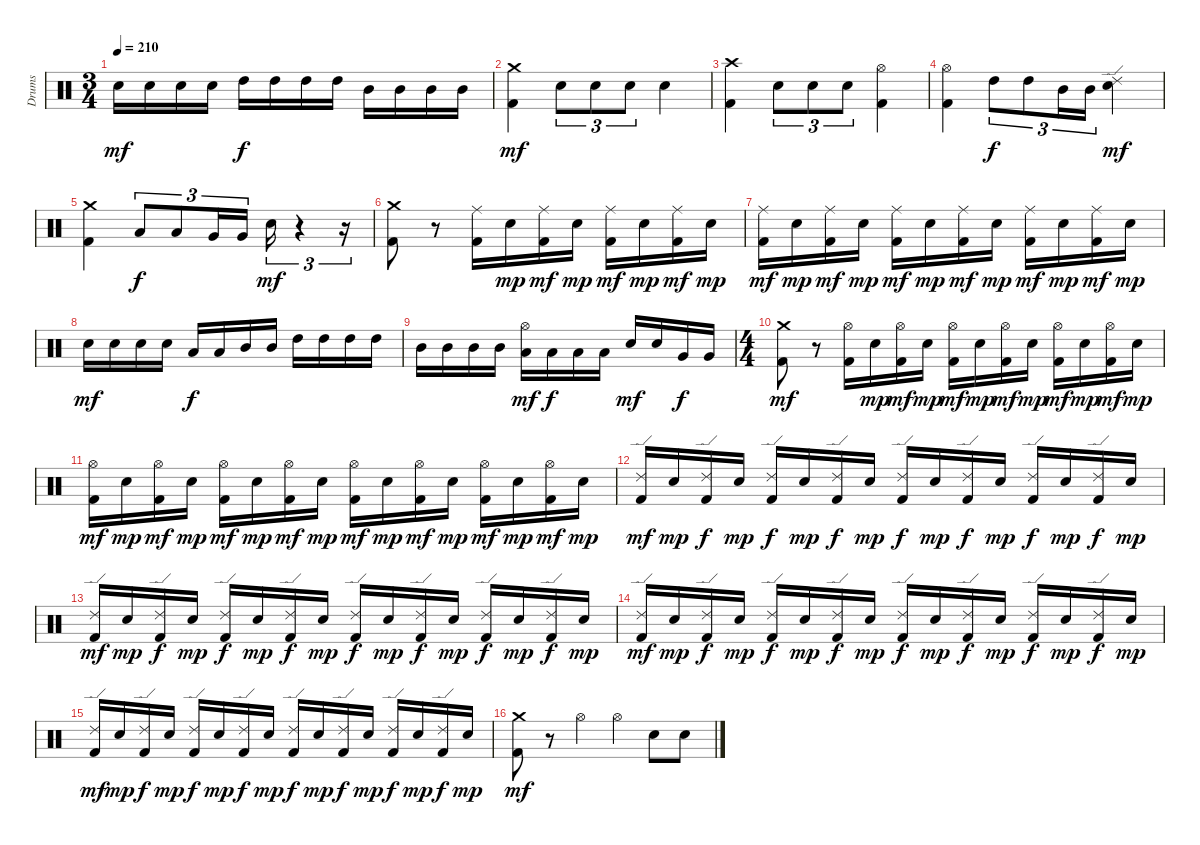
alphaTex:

\track ("Drums" "Drums") {instrument percussion}
\staff {score}
\articulation defaults
\ts (3 4)
\tempo 210
\clef neutral
\ks c "Electric Snare (hit)".16{dy mf} "Electric Snare (hit)".16 "Electric Snare (hit)".16 "Electric Snare (hit)".16 "High Tom (hit)".16{dy f} "High Tom (hit)".16 "High Tom (hit)".16 "High Tom (hit)".16 "Mid Tom (hit)".16 "Mid Tom (hit)".16 "Mid Tom (hit)".16 "Mid Tom (hit)".16
|
("Crash medium (hit)" "Kick (hit) 2").4{dy mf} "Electric Snare (hit)".8{tu (3 2)} "Electric Snare (hit)".8{tu (3 2)} "Electric Snare (hit)".8{tu (3 2)} "Electric Snare (hit)".4 |
("Crash high (hit)" "Kick (hit) 2").4 "Electric Snare (hit)".8{tu (3 2)} "Electric Snare (hit)".8{tu (3 2)} "Electric Snare (hit)".8{tu (3 2)} ("Hi-Hat (open)" "Kick (hit) 2").4 |
("Hi-Hat (open)" "Kick (hit) 2").4 "High Tom (hit)".8{tu (3 2) dy f} "High Tom (hit)".8{tu (3 2)} "Mid Tom (hit)".16{tu (3 2)} "Mid Tom (hit)".16{tu (3 2)} ("Ride (edge) 2" "Electric Snare (hit)").4{dy mf} |
("Crash medium (hit)" "Kick (hit) 2").4 "Low Tom (hit)".8{tu (3 2) dy f} "Low Tom (hit)".8{tu (3 2)} "Very Low Tom (hit)".16{tu (3 2)} "Very Low Tom (hit)".16{tu (3 2)} "Electric Snare (hit)".16{tu (3 2) dy mf} r.4{tu (3 2)} r.16{tu (3 2)} |
("Crash medium (hit)" "Kick (hit) 2").8 r.8 ("Ride (middle)" "Kick (hit) 2").16 "Electric Snare (hit)".16{dy mp} ("Ride (middle)" "Kick (hit) 2").16{dy mf} "Electric Snare (hit)".16{dy mp} ("Ride (middle)" "Kick (hit) 2").16{dy mf} "Electric Snare (hit)".16{dy mp} ("Ride (middle)" "Kick (hit) 2").16{dy mf} "Electric Snare (hit)".16{dy mp} |
("Ride (middle)" "Kick (hit) 2").16{dy mf} "Electric Snare (hit)".16{dy mp} ("Ride (middle)" "Kick (hit) 2").16{dy mf} "Electric Snare (hit)".16{dy mp} ("Ride (middle)" "Kick (hit) 2").16{dy mf} "Electric Snare (hit)".16{dy mp} ("Ride (middle)" "Kick (hit) 2").16{dy mf} "Electric Snare (hit)".16{dy mp} ("Ride (middle)" "Kick (hit) 2").16{dy mf} "Electric Snare (hit)".16{dy mp} ("Ride (middle)" "Kick (hit) 2").16{dy mf} "Electric Snare (hit)".16{dy mp} |
"Electric Snare (hit)".16{dy mf} "Electric Snare (hit)".16 "Electric Snare (hit)".16 "Electric Snare (hit)".16 "Low Tom (hit)".16{dy f} "Low Tom (hit)".16 "Mid Tom (hit)".16 "Mid Tom (hit)".16 "High Tom (hit)".16 "High Tom (hit)".16 "High Tom (hit)".16 "High Tom (hit)".16 |
"Mid Tom (hit)".16 "Mid Tom (hit)".16 "Mid Tom (hit)".16 "Mid Tom (hit)".16 ("Hi-Hat (open)" "Low Tom (hit)").16{dy mf} "Low Tom (hit)".16{dy f} "Low Tom (hit)".16 "Low Tom (hit)".16 "Electric Snare (hit)".16{dy mf} "Electric Snare (hit)".16 "Very Low Tom (hit)".16{dy f} "Very Low Tom (hit)".16 |
\ts (4 4)
("Crash medium (hit)" "Kick (hit) 2").8{dy mf} r.8 ("Hi-Hat (open)" "Kick (hit) 2").16 "Electric Snare (hit)".16{dy mp} ("Hi-Hat (open)" "Kick (hit) 2").16{dy mf} "Electric Snare (hit)".16{dy mp} ("Hi-Hat (open)" "Kick (hit) 2").16{dy mf} "Electric Snare (hit)".16{dy mp} ("Hi-Hat (open)" "Kick (hit) 2").16{dy mf} "Electric Snare (hit)".16{dy mp} ("Hi-Hat (open)" "Kick (hit) 2").16{dy mf} "Electric Snare (hit)".16{dy mp} ("Hi-Hat (open)" "Kick (hit) 2").16{dy mf} "Electric Snare (hit)".16{dy mp} |
("Hi-Hat (open)" "Kick (hit) 2").16{dy mf} "Electric Snare (hit)".16{dy mp} ("Hi-Hat (open)" "Kick (hit) 2").16{dy mf} "Electric Snare (hit)".16{dy mp} ("Hi-Hat (open)" "Kick (hit) 2").16{dy mf} "Electric Snare (hit)".16{dy mp} ("Hi-Hat (open)" "Kick (hit) 2").16{dy mf} "Electric Snare (hit)".16{dy mp} ("Hi-Hat (open)" "Kick (hit) 2").16{dy mf} "Electric Snare (hit)".16{dy mp} ("Hi-Hat (open)" "Kick (hit) 2").16{dy mf} "Electric Snare (hit)".16{dy mp} ("Hi-Hat (open)" "Kick (hit) 2").16{dy mf} "Electric Snare (hit)".16{dy mp} ("Hi-Hat (open)" "Kick (hit) 2").16{dy mf} "Electric Snare (hit)".16{dy mp} |
("Ride (edge) 2" "Kick (hit) 2").16{dy mf} "Electric Snare (hit)".16{dy mp} ("Ride (edge) 2" "Kick (hit) 2").16{dy f} "Electric Snare (hit)".16{dy mp} ("Ride (edge) 2" "Kick (hit) 2").16{dy f} "Electric Snare (hit)".16{dy mp} ("Ride (edge) 2" "Kick (hit) 2").16{dy f} "Electric Snare (hit)".16{dy mp} ("Ride (edge) 2" "Kick (hit) 2").16{dy f} "Electric Snare (hit)".16{dy mp} ("Ride (edge) 2" "Kick (hit) 2").16{dy f} "Electric Snare (hit)".16{dy mp} ("Ride (edge) 2" "Kick (hit) 2").16{dy f} "Electric Snare (hit)".16{dy mp} ("Ride (edge) 2" "Kick (hit) 2").16{dy f} "Electric Snare (hit)".16{dy mp} |
("Ride (edge) 2" "Kick (hit) 2").16{dy mf} "Electric Snare (hit)".16{dy mp} ("Ride (edge) 2" "Kick (hit) 2").16{dy f} "Electric Snare (hit)".16{dy mp} ("Ride (edge) 2" "Kick (hit) 2").16{dy f} "Electric Snare (hit)".16{dy mp} ("Ride (edge) 2" "Kick (hit) 2").16{dy f} "Electric Snare (hit)".16{dy mp} ("Ride (edge) 2" "Kick (hit) 2").16{dy f} "Electric Snare (hit)".16{dy mp} ("Ride (edge) 2" "Kick (hit) 2").16{dy f} "Electric Snare (hit)".16{dy mp} ("Ride (edge) 2" "Kick (hit) 2").16{dy f} "Electric Snare (hit)".16{dy mp} ("Ride (edge) 2" "Kick (hit) 2").16{dy f} "Electric Snare (hit)".16{dy mp} |
("Ride (edge) 2" "Kick (hit) 2").16{dy mf} "Electric Snare (hit)".16{dy mp} ("Ride (edge) 2" "Kick (hit) 2").16{dy f} "Electric Snare (hit)".16{dy mp} ("Ride (edge) 2" "Kick (hit) 2").16{dy f} "Electric Snare (hit)".16{dy mp} ("Ride (edge) 2" "Kick (hit) 2").16{dy f} "Electric Snare (hit)".16{dy mp} ("Ride (edge) 2" "Kick (hit) 2").16{dy f} "Electric Snare (hit)".16{dy mp} ("Ride (edge) 2" "Kick (hit) 2").16{dy f} "Electric Snare (hit)".16{dy mp} ("Ride (edge) 2" "Kick (hit) 2").16{dy f} "Electric Snare (hit)".16{dy mp} ("Ride (edge) 2" "Kick (hit) 2").16{dy f} "Electric Snare (hit)".16{dy mp} |
("Ride (edge) 2" "Kick (hit) 2").16{dy mf} "Electric Snare (hit)".16{dy mp} ("Ride (edge) 2" "Kick (hit) 2").16{dy f} "Electric Snare (hit)".16{dy mp} ("Ride (edge) 2" "Kick (hit) 2").16{dy f} "Electric Snare (hit)".16{dy mp} ("Ride (edge) 2" "Kick (hit) 2").16{dy f} "Electric Snare (hit)".16{dy mp} ("Ride (edge) 2" "Kick (hit) 2").16{dy f} "Electric Snare (hit)".16{dy mp} ("Ride (edge) 2" "Kick (hit) 2").16{dy f} "Electric Snare (hit)".16{dy mp} ("Ride (edge) 2" "Kick (hit) 2").16{dy f} "Electric Snare (hit)".16{dy mp} ("Ride (edge) 2" "Kick (hit) 2").16{dy f} "Electric Snare (hit)".16{dy mp} |
("Crash medium (hit)" "Kick (hit) 2").8{dy mf} r.8 "Hi-Hat (open)".4 "Hi-Hat (open)".4 "Electric Snare (hit)".8 "Electric Snare (hit)".8
